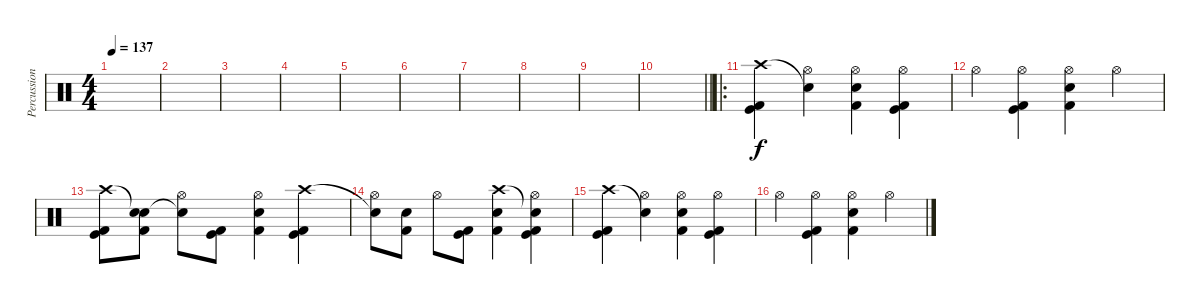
\track ("Percussion" "Percussion") {instrument percussion}
\staff {score}
\articulation defaults
\ts (4 4)
\tempo 137
\clef neutral
\ks c
|
|
|
|
|
|
|
|
|
\barLineRight lightlight
|
\ro
("Crash high (hit)" "Kick (hit) 2" "Kick (hit)").4 ("Snare (hit)"{t} "Hi-Hat (open)").4 ("Hi-Hat (open)" "Snare (hit) 2" "Kick (hit) 2").4 ("Hi-Hat (open)" "Kick (hit) 2" "Kick (hit)").4 |
"Hi-Hat (open)".4 ("Hi-Hat (open)" "Kick (hit) 2" "Kick (hit)").4 ("Hi-Hat (open)" "Snare (hit) 2" "Kick (hit) 2").4 "Hi-Hat (open)".4 |
("Crash high (hit)" "Kick (hit) 2" "Kick (hit)").8 ("Snare (hit)"{t} "Snare (hit) 2" "Kick (hit) 2").8 ("Snare (hit)"{t} "Hi-Hat (open)").8 ("Kick (hit) 2" "Kick (hit)").8 ("Hi-Hat (open)" "Snare (hit) 2" "Kick (hit) 2").4 ("Crash high (hit)" "Kick (hit) 2" "Kick (hit)").4 |
("Snare (hit)"{t} "Hi-Hat (open)").8 ("Snare (hit) 2" "Kick (hit) 2").8 "Hi-Hat (open)".8 ("Kick (hit) 2" "Kick (hit)").8 ("Crash high (hit)" "Snare (hit) 2" "Kick (hit) 2").4 ("Snare (hit)"{t} "Hi-Hat (open)" "Kick (hit) 2" "Kick (hit)").4 |
("Crash high (hit)" "Kick (hit) 2" "Kick (hit)").4 ("Snare (hit)"{t} "Hi-Hat (open)").4 ("Hi-Hat (open)" "Snare (hit) 2" "Kick (hit) 2").4 ("Hi-Hat (open)" "Kick (hit) 2" "Kick (hit)").4 |
"Hi-Hat (open)".4 ("Hi-Hat (open)" "Kick (hit) 2" "Kick (hit)").4 ("Hi-Hat (open)" "Snare (hit) 2" "Kick (hit) 2").4 "Hi-Hat (open)".4
